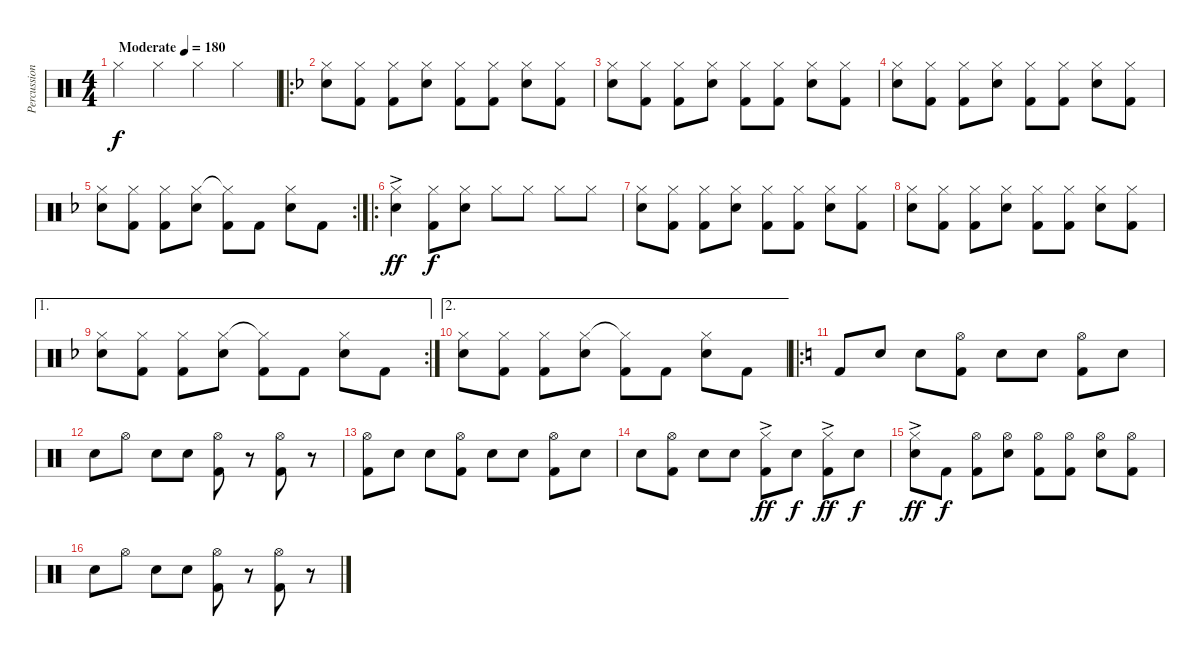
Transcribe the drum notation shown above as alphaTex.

\track ("Percussion" "Percussion") {instrument percussion}
\staff {score}
\articulation defaults
\ts (4 4)
\tempo (180 "Moderate")
\clef neutral
\ks c "Hi-Hat (closed)".4{dy f} "Hi-Hat (closed)".4 "Hi-Hat (closed)".4 "Hi-Hat (closed)".4
|
\ro
\ks f
("Hi-Hat (closed)" "Snare (hit) 2").8 ("Hi-Hat (closed)" "Kick (hit) 2").8 ("Hi-Hat (closed)" "Kick (hit) 2").8 ("Hi-Hat (closed)" "Snare (hit) 2").8 ("Hi-Hat (closed)" "Kick (hit) 2").8 ("Hi-Hat (closed)" "Kick (hit) 2").8 ("Hi-Hat (closed)" "Snare (hit) 2").8 ("Hi-Hat (closed)" "Kick (hit) 2").8 |
("Hi-Hat (closed)" "Snare (hit) 2").8 ("Hi-Hat (closed)" "Kick (hit) 2").8 ("Hi-Hat (closed)" "Kick (hit) 2").8 ("Hi-Hat (closed)" "Snare (hit) 2").8 ("Hi-Hat (closed)" "Kick (hit) 2").8 ("Hi-Hat (closed)" "Kick (hit) 2").8 ("Hi-Hat (closed)" "Snare (hit) 2").8 ("Hi-Hat (closed)" "Kick (hit) 2").8 |
("Hi-Hat (closed)" "Snare (hit) 2").8 ("Hi-Hat (closed)" "Kick (hit) 2").8 ("Hi-Hat (closed)" "Kick (hit) 2").8 ("Hi-Hat (closed)" "Snare (hit) 2").8 ("Hi-Hat (closed)" "Kick (hit) 2").8 ("Hi-Hat (closed)" "Kick (hit) 2").8 ("Hi-Hat (closed)" "Snare (hit) 2").8 ("Hi-Hat (closed)" "Kick (hit) 2").8 |
\rc 2
("Hi-Hat (closed)" "Snare (hit) 2").8 ("Hi-Hat (closed)" "Kick (hit) 2").8 ("Hi-Hat (closed)" "Kick (hit) 2").8 ("Hi-Hat (closed)" "Snare (hit) 2").8 ("Hi-Hat (closed)"{t} "Kick (hit) 2").8 "Kick (hit) 2".8 ("Hi-Hat (closed)" "Snare (hit) 2").8 "Kick (hit) 2".8 |
\ro
("Hi-Hat (closed)"{ac} "Snare (hit) 2").4{dy ff} ("Hi-Hat (closed)" "Kick (hit) 2").8{dy f} ("Hi-Hat (closed)" "Snare (hit) 2").8 "Hi-Hat (closed)".8 "Hi-Hat (closed)".8 "Hi-Hat (closed)".8 "Hi-Hat (closed)".8 |
("Hi-Hat (closed)" "Snare (hit) 2").8 ("Hi-Hat (closed)" "Kick (hit) 2").8 ("Hi-Hat (closed)" "Kick (hit) 2").8 ("Hi-Hat (closed)" "Snare (hit) 2").8 ("Hi-Hat (closed)" "Kick (hit) 2").8 ("Hi-Hat (closed)" "Kick (hit) 2").8 ("Hi-Hat (closed)" "Snare (hit) 2").8 ("Hi-Hat (closed)" "Kick (hit) 2").8 |
("Hi-Hat (closed)" "Snare (hit) 2").8 ("Hi-Hat (closed)" "Kick (hit) 2").8 ("Hi-Hat (closed)" "Kick (hit) 2").8 ("Hi-Hat (closed)" "Snare (hit) 2").8 ("Hi-Hat (closed)" "Kick (hit) 2").8 ("Hi-Hat (closed)" "Kick (hit) 2").8 ("Hi-Hat (closed)" "Snare (hit) 2").8 ("Hi-Hat (closed)" "Kick (hit) 2").8 |
\ae 1
\rc 2
("Hi-Hat (closed)" "Snare (hit) 2").8 ("Hi-Hat (closed)" "Kick (hit) 2").8 ("Hi-Hat (closed)" "Kick (hit) 2").8 ("Hi-Hat (closed)" "Snare (hit) 2").8 ("Hi-Hat (closed)"{t} "Kick (hit) 2").8 "Kick (hit) 2".8 ("Hi-Hat (closed)" "Snare (hit) 2").8 "Kick (hit) 2".8 |
\ae 2
("Hi-Hat (closed)" "Snare (hit) 2").8 ("Hi-Hat (closed)" "Kick (hit) 2").8 ("Hi-Hat (closed)" "Kick (hit) 2").8 ("Hi-Hat (closed)" "Snare (hit) 2").8 ("Hi-Hat (closed)"{t} "Kick (hit) 2").8 "Kick (hit) 2".8 ("Hi-Hat (closed)" "Snare (hit) 2").8 "Kick (hit) 2".8 |
\ro
\ks c "Kick (hit) 2".8 "Snare (hit) 2".8 "Snare (hit) 2".8
("Hi-Hat (open)" "Kick (hit) 2").8 "Snare (hit) 2".8 "Snare (hit) 2".8 ("Hi-Hat (open)" "Kick (hit) 2").8 "Snare (hit) 2".8 |
"Snare (hit) 2".8 "Hi-Hat (open)".8 "Snare (hit) 2".8 "Snare (hit) 2".8 ("Hi-Hat (open)" "Kick (hit) 2").8 r.8 ("Hi-Hat (open)" "Kick (hit) 2").8 r.8 |
("Hi-Hat (open)" "Kick (hit) 2").8 "Snare (hit) 2".8 "Snare (hit) 2".8 ("Hi-Hat (open)" "Kick (hit) 2").8 "Snare (hit) 2".8 "Snare (hit) 2".8 ("Hi-Hat (open)" "Kick (hit) 2").8 "Snare (hit) 2".8 |
"Snare (hit) 2".8 ("Hi-Hat (open)" "Kick (hit) 2").8 "Snare (hit) 2".8 "Snare (hit) 2".8 ("Hi-Hat (closed)"{ac} "Kick (hit) 2").8{dy ff} "Snare (hit) 2".8{dy f} ("Hi-Hat (closed)"{ac} "Kick (hit) 2").8{dy ff} "Snare (hit) 2".8{dy f} |
("Hi-Hat (closed)"{ac} "Snare (hit) 2").8{dy ff} "Kick (hit) 2".8{dy f} ("Hi-Hat (open)" "Kick (hit) 2").8 ("Hi-Hat (open)" "Snare (hit) 2").8 ("Hi-Hat (open)" "Kick (hit) 2").8 ("Hi-Hat (open)" "Kick (hit) 2").8 ("Hi-Hat (open)" "Snare (hit) 2").8 ("Hi-Hat (open)" "Kick (hit) 2").8 |
"Snare (hit) 2".8 "Hi-Hat (open)".8 "Snare (hit) 2".8 "Snare (hit) 2".8 ("Hi-Hat (open)" "Kick (hit) 2").8 r.8 ("Hi-Hat (open)" "Kick (hit) 2").8 r.8
